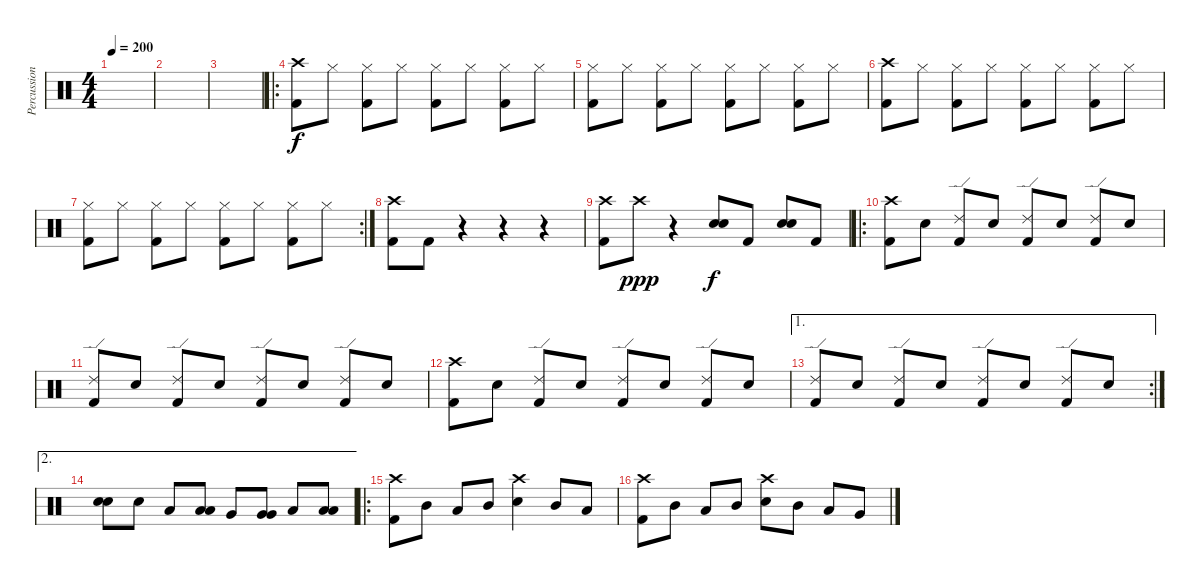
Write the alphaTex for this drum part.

\track ("Percussions" "Percussion") {instrument percussion}
\staff {score}
\articulation defaults
\ts (4 4)
\tempo 200
\clef neutral
\ks c
|
|
|
\ro
("Crash high (hit)" "Kick (hit) 2").8{dy f} "Hi-Hat (closed)".8 ("Hi-Hat (closed)" "Kick (hit) 2").8 "Hi-Hat (closed)".8 ("Hi-Hat (closed)" "Kick (hit) 2").8 "Hi-Hat (closed)".8 ("Hi-Hat (closed)" "Kick (hit) 2").8 "Hi-Hat (closed)".8 |
("Hi-Hat (closed)" "Kick (hit) 2").8 "Hi-Hat (closed)".8 ("Hi-Hat (closed)" "Kick (hit) 2").8 "Hi-Hat (closed)".8 ("Hi-Hat (closed)" "Kick (hit) 2").8 "Hi-Hat (closed)".8 ("Hi-Hat (closed)" "Kick (hit) 2").8 "Hi-Hat (closed)".8 |
("Crash high (hit)" "Kick (hit) 2").8 "Hi-Hat (closed)".8 ("Hi-Hat (closed)" "Kick (hit) 2").8 "Hi-Hat (closed)".8 ("Hi-Hat (closed)" "Kick (hit) 2").8 "Hi-Hat (closed)".8 ("Hi-Hat (closed)" "Kick (hit) 2").8 "Hi-Hat (closed)".8 |
\rc 2
("Hi-Hat (closed)" "Kick (hit) 2").8 "Hi-Hat (closed)".8 ("Hi-Hat (closed)" "Kick (hit) 2").8 "Hi-Hat (closed)".8 ("Hi-Hat (closed)" "Kick (hit) 2").8 "Hi-Hat (closed)".8 ("Hi-Hat (closed)" "Kick (hit) 2").8 "Hi-Hat (closed)".8 |
("Crash high (hit)" "Kick (hit) 2").8 "Kick (hit) 2".8 r.4 r.4 r.4 |
("Crash high (hit)" "Kick (hit) 2").8 "Crash high (hit)".8{dy ppp} r.4 ("Snare (hit) 2" "Snare (hit) 2").8{dy f} "Kick (hit) 2".8 ("Snare (hit) 2" "Snare (hit) 2").8 "Kick (hit) 2".8 |
\ro
("Crash high (hit)" "Kick (hit) 2").8 "Snare (hit) 2".8 ("Ride (edge) 2" "Kick (hit) 2").8 "Snare (hit) 2".8 ("Ride (edge) 2" "Kick (hit) 2").8 "Snare (hit) 2".8 ("Ride (edge) 2" "Kick (hit) 2").8 "Snare (hit) 2".8 |
("Ride (edge) 2" "Kick (hit) 2").8 "Snare (hit) 2".8 ("Ride (edge) 2" "Kick (hit) 2").8 "Snare (hit) 2".8 ("Ride (edge) 2" "Kick (hit) 2").8 "Snare (hit) 2".8 ("Ride (edge) 2" "Kick (hit) 2").8 "Snare (hit) 2".8 |
("Crash high (hit)" "Kick (hit) 2").8 "Snare (hit) 2".8 ("Ride (edge) 2" "Kick (hit) 2").8 "Snare (hit) 2".8 ("Ride (edge) 2" "Kick (hit) 2").8 "Snare (hit) 2".8 ("Ride (edge) 2" "Kick (hit) 2").8 "Snare (hit) 2".8 |
\ae 1
\rc 2
("Ride (edge) 2" "Kick (hit) 2").8 "Snare (hit) 2".8 ("Ride (edge) 2" "Kick (hit) 2").8 "Snare (hit) 2".8 ("Ride (edge) 2" "Kick (hit) 2").8 "Snare (hit) 2".8 ("Ride (edge) 2" "Kick (hit) 2").8 "Snare (hit) 2".8 |
\ae 2
("Snare (hit) 2" "Snare (hit) 2").8{bd 240} "Snare (hit) 2".8 "Low Tom (hit)".8 ("Low Tom (hit)" "Low Tom (hit)").8{bd 240} "Very Low Tom (hit)".8 ("Very Low Tom (hit)" "Very Low Tom (hit)").8{bd 240} "Low Floor Tom (hit)".8 ("Low Floor Tom (hit)" "Low Floor Tom (hit)").8{bd 240} |
\ro
("Crash high (hit)" "Kick (hit) 2").8 "Mid Tom (hit)".8 "Low Tom (hit)".8 "Mid Tom (hit)".8 ("Crash high (hit)" "Snare (hit) 2").4 "Mid Tom (hit)".8 "Low Tom (hit)".8 |
("Crash high (hit)" "Kick (hit) 2").8 "Mid Tom (hit)".8 "Low Tom (hit)".8 "Mid Tom (hit)".8 ("Crash high (hit)" "Snare (hit) 2").8 "Mid Tom (hit)".8 "Low Tom (hit)".8 "Very Low Tom (hit)".8
